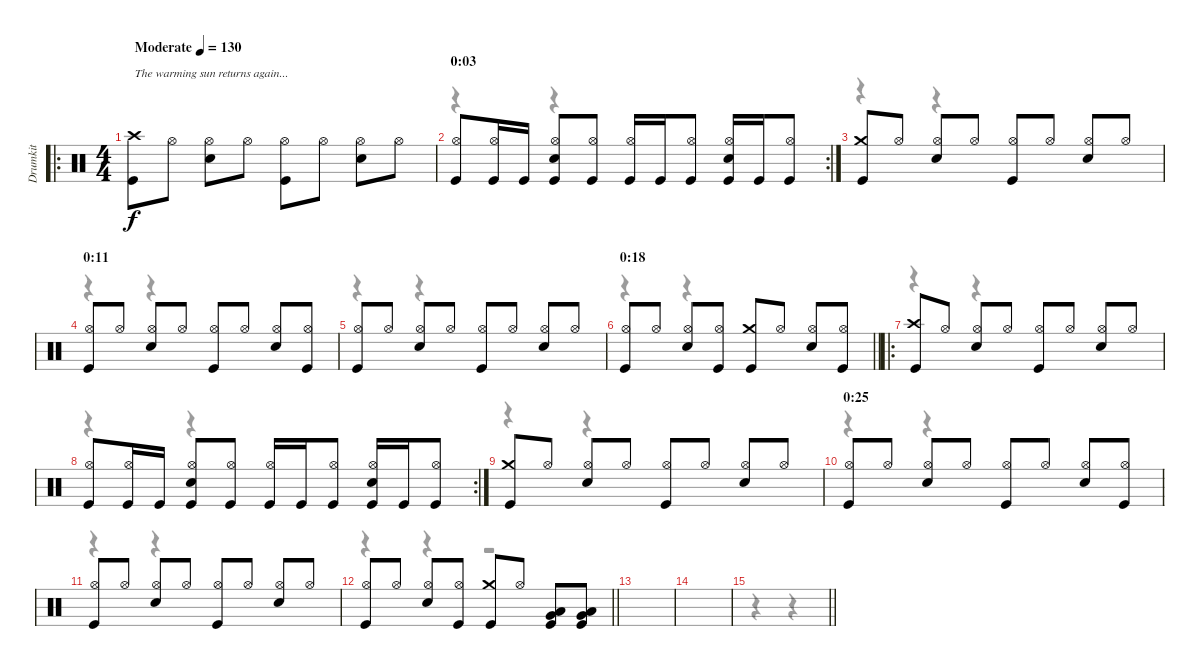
\track ("Drumkit" "Drumkit") {instrument percussion}
\staff {score}
\articulation defaults
\voice
\ro
\ts (4 4)
\tempo (130 "Moderate")
\clef neutral
\ks c
("Crash high (hit)" "Kick (hit)").8{txt "The warming sun returns again..." dy f} "Hi-Hat (open)".8 ("Hi-Hat (open)" "Snare (hit) 2").8 "Hi-Hat (open)".8 ("Hi-Hat (open)" "Kick (hit)").8 "Hi-Hat (open)".8 ("Hi-Hat (open)" "Snare (hit) 2").8 "Hi-Hat (open)".8 |
\rc 2
\section ("" "0:03")
("Hi-Hat (open)" "Kick (hit)").8 ("Hi-Hat (open)" "Kick (hit)").16 "Kick (hit)".16 ("Hi-Hat (open)" "Snare (hit) 2" "Kick (hit)").8 ("Hi-Hat (open)" "Kick (hit)").8 ("Hi-Hat (open)" "Kick (hit)").16 "Kick (hit)".16 ("Hi-Hat (open)" "Kick (hit)").8 ("Hi-Hat (open)" "Snare (hit) 2" "Kick (hit)").16 "Kick (hit)".16 ("Hi-Hat (open)" "Kick (hit)").8 |
("Crash medium (hit)" "Kick (hit)").8 "Hi-Hat (open)".8 ("Hi-Hat (open)" "Snare (hit) 2").8 "Hi-Hat (open)".8 ("Hi-Hat (open)" "Kick (hit)").8 "Hi-Hat (open)".8 ("Hi-Hat (open)" "Snare (hit) 2").8 "Hi-Hat (open)".8 |
\section ("" "0:11")
("Hi-Hat (open)" "Kick (hit)").8 "Hi-Hat (open)".8 ("Hi-Hat (open)" "Snare (hit) 2").8 "Hi-Hat (open)".8 ("Hi-Hat (open)" "Kick (hit)").8 "Hi-Hat (open)".8 ("Hi-Hat (open)" "Snare (hit) 2").8 ("Hi-Hat (open)" "Kick (hit)").8 |
("Hi-Hat (open)" "Kick (hit)").8 "Hi-Hat (open)".8 ("Hi-Hat (open)" "Snare (hit) 2").8 "Hi-Hat (open)".8 ("Hi-Hat (open)" "Kick (hit)").8 "Hi-Hat (open)".8 ("Hi-Hat (open)" "Snare (hit) 2").8 "Hi-Hat (open)".8 |
\section ("" "0:18")
\barLineRight lightlight
("Hi-Hat (open)" "Kick (hit)").8 "Hi-Hat (open)".8 ("Hi-Hat (open)" "Snare (hit) 2").8 ("Hi-Hat (open)" "Kick (hit)").8 ("Crash medium (hit)" "Kick (hit)").8 "Hi-Hat (open)".8 ("Hi-Hat (open)" "Snare (hit) 2").8 ("Hi-Hat (open)" "Kick (hit)").8 |
\ro
("Crash high (hit)" "Kick (hit)").8 "Hi-Hat (open)".8 ("Hi-Hat (open)" "Snare (hit) 2").8 "Hi-Hat (open)".8 ("Hi-Hat (open)" "Kick (hit)").8 "Hi-Hat (open)".8 ("Hi-Hat (open)" "Snare (hit) 2").8 "Hi-Hat (open)".8 |
\rc 2
("Hi-Hat (open)" "Kick (hit)").8 ("Hi-Hat (open)" "Kick (hit)").16 "Kick (hit)".16 ("Hi-Hat (open)" "Snare (hit) 2" "Kick (hit)").8 ("Hi-Hat (open)" "Kick (hit)").8 ("Hi-Hat (open)" "Kick (hit)").16 "Kick (hit)".16 ("Hi-Hat (open)" "Kick (hit)").8 ("Hi-Hat (open)" "Snare (hit) 2" "Kick (hit)").16 "Kick (hit)".16 ("Hi-Hat (open)" "Kick (hit)").8 |
("Crash medium (hit)" "Kick (hit)").8 "Hi-Hat (open)".8 ("Hi-Hat (open)" "Snare (hit) 2").8 "Hi-Hat (open)".8 ("Hi-Hat (open)" "Kick (hit)").8 "Hi-Hat (open)".8 ("Hi-Hat (open)" "Snare (hit) 2").8 "Hi-Hat (open)".8 |
\section ("" "0:25")
("Hi-Hat (open)" "Kick (hit)").8 "Hi-Hat (open)".8 ("Hi-Hat (open)" "Snare (hit) 2").8 "Hi-Hat (open)".8 ("Hi-Hat (open)" "Kick (hit)").8 "Hi-Hat (open)".8 ("Hi-Hat (open)" "Snare (hit) 2").8 ("Hi-Hat (open)" "Kick (hit)").8 |
("Hi-Hat (open)" "Kick (hit)").8 "Hi-Hat (open)".8 ("Hi-Hat (open)" "Snare (hit) 2").8 "Hi-Hat (open)".8 ("Hi-Hat (open)" "Kick (hit)").8 "Hi-Hat (open)".8 ("Hi-Hat (open)" "Snare (hit) 2").8 "Hi-Hat (open)".8 |
\barLineRight lightlight
("Hi-Hat (open)" "Kick (hit)").8 "Hi-Hat (open)".8 ("Hi-Hat (open)" "Snare (hit) 2").8 ("Hi-Hat (open)" "Kick (hit)").8 ("Crash medium (hit)" "Kick (hit)").8 "Hi-Hat (open)".8 ("Low Tom (hit)" "Very Low Tom (hit)" "Kick (hit)").8 ("Very Low Tom (hit)" "Low Floor Tom (hit)" "Kick (hit)").8 |
|
|
\barLineRight lightlight
\voice
\clef neutral
\ottava regular
\simile none
\ks c
r.4{dy f} r.4 |
r.4 r.4 |
r.4 r.4 |
r.4 r.4 |
r.4 r.4 |
\barLineRight lightlight
r.4 r.4 |
r.4 r.4 |
r.4 r.4 |
r.4 r.4 |
r.4 r.4 |
r.4 r.4 |
\barLineRight lightlight
r.4 r.4 r.2 |
|
|
\barLineRight lightlight
